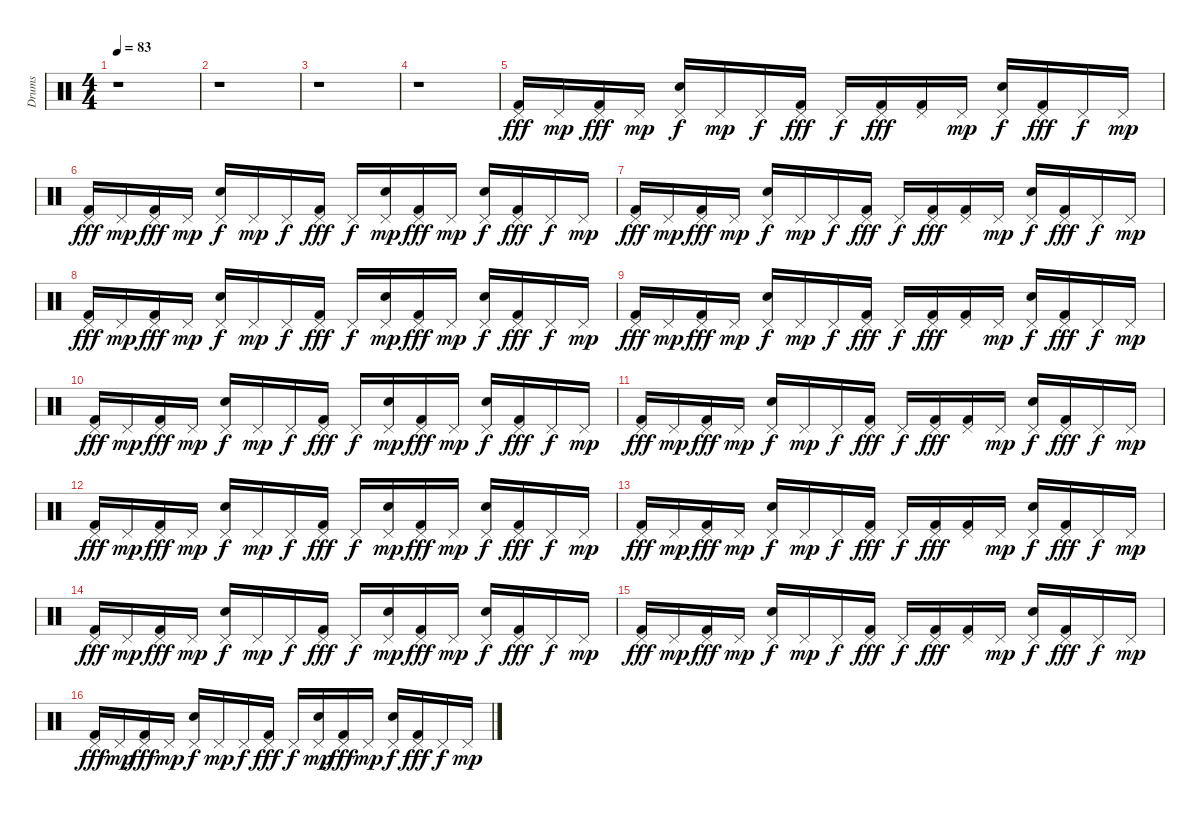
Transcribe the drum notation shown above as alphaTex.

\track ("Drums" "Drums") {instrument percussion}
\staff {score}
\articulation defaults
\ts (4 4)
\tempo 83
\clef neutral
\ks c
r.1{dy fff} |
r.1 |
r.1 |
r.1 |
("Pedal Hi-Hat (hit)" "Kick (hit) 2").16 "Pedal Hi-Hat (hit)".16{dy mp} ("Pedal Hi-Hat (hit)" "Kick (hit) 2").16{dy fff} "Pedal Hi-Hat (hit)".16{dy mp} ("Pedal Hi-Hat (hit)" "Snare (hit) 2").16{dy f} "Pedal Hi-Hat (hit)".16{dy mp} "Pedal Hi-Hat (hit)".16{dy f} ("Pedal Hi-Hat (hit)" "Kick (hit) 2").16{dy fff} "Pedal Hi-Hat (hit)".16{dy f} ("Pedal Hi-Hat (hit)" "Kick (hit) 2").16{dy fff} ("Pedal Hi-Hat (hit)" "Kick (hit) 2").16 "Pedal Hi-Hat (hit)".16{dy mp} ("Pedal Hi-Hat (hit)" "Snare (hit) 2").16{dy f} ("Pedal Hi-Hat (hit)" "Kick (hit) 2").16{dy fff} "Pedal Hi-Hat (hit)".16{dy f} "Pedal Hi-Hat (hit)".16{dy mp} |
("Pedal Hi-Hat (hit)" "Kick (hit) 2").16{dy fff} "Pedal Hi-Hat (hit)".16{dy mp} ("Pedal Hi-Hat (hit)" "Kick (hit) 2").16{dy fff} "Pedal Hi-Hat (hit)".16{dy mp} ("Pedal Hi-Hat (hit)" "Snare (hit) 2").16{dy f} "Pedal Hi-Hat (hit)".16{dy mp} "Pedal Hi-Hat (hit)".16{dy f} ("Pedal Hi-Hat (hit)" "Kick (hit) 2").16{dy fff} "Pedal Hi-Hat (hit)".16{dy f} ("Pedal Hi-Hat (hit)" "Snare (hit) 2").16{dy mp} ("Pedal Hi-Hat (hit)" "Kick (hit) 2").16{dy fff} "Pedal Hi-Hat (hit)".16{dy mp} ("Pedal Hi-Hat (hit)" "Snare (hit) 2").16{dy f} ("Pedal Hi-Hat (hit)" "Kick (hit) 2").16{dy fff} "Pedal Hi-Hat (hit)".16{dy f} "Pedal Hi-Hat (hit)".16{dy mp} |
("Pedal Hi-Hat (hit)" "Kick (hit) 2").16{dy fff} "Pedal Hi-Hat (hit)".16{dy mp} ("Pedal Hi-Hat (hit)" "Kick (hit) 2").16{dy fff} "Pedal Hi-Hat (hit)".16{dy mp} ("Pedal Hi-Hat (hit)" "Snare (hit) 2").16{dy f} "Pedal Hi-Hat (hit)".16{dy mp} "Pedal Hi-Hat (hit)".16{dy f} ("Pedal Hi-Hat (hit)" "Kick (hit) 2").16{dy fff} "Pedal Hi-Hat (hit)".16{dy f} ("Pedal Hi-Hat (hit)" "Kick (hit) 2").16{dy fff} ("Pedal Hi-Hat (hit)" "Kick (hit) 2").16 "Pedal Hi-Hat (hit)".16{dy mp} ("Pedal Hi-Hat (hit)" "Snare (hit) 2").16{dy f} ("Pedal Hi-Hat (hit)" "Kick (hit) 2").16{dy fff} "Pedal Hi-Hat (hit)".16{dy f} "Pedal Hi-Hat (hit)".16{dy mp} |
("Pedal Hi-Hat (hit)" "Kick (hit) 2").16{dy fff} "Pedal Hi-Hat (hit)".16{dy mp} ("Pedal Hi-Hat (hit)" "Kick (hit) 2").16{dy fff} "Pedal Hi-Hat (hit)".16{dy mp} ("Pedal Hi-Hat (hit)" "Snare (hit) 2").16{dy f} "Pedal Hi-Hat (hit)".16{dy mp} "Pedal Hi-Hat (hit)".16{dy f} ("Pedal Hi-Hat (hit)" "Kick (hit) 2").16{dy fff} "Pedal Hi-Hat (hit)".16{dy f} ("Pedal Hi-Hat (hit)" "Snare (hit) 2").16{dy mp} ("Pedal Hi-Hat (hit)" "Kick (hit) 2").16{dy fff} "Pedal Hi-Hat (hit)".16{dy mp} ("Pedal Hi-Hat (hit)" "Snare (hit) 2").16{dy f} ("Pedal Hi-Hat (hit)" "Kick (hit) 2").16{dy fff} "Pedal Hi-Hat (hit)".16{dy f} "Pedal Hi-Hat (hit)".16{dy mp} |
("Pedal Hi-Hat (hit)" "Kick (hit) 2").16{dy fff} "Pedal Hi-Hat (hit)".16{dy mp} ("Pedal Hi-Hat (hit)" "Kick (hit) 2").16{dy fff} "Pedal Hi-Hat (hit)".16{dy mp} ("Pedal Hi-Hat (hit)" "Snare (hit) 2").16{dy f} "Pedal Hi-Hat (hit)".16{dy mp} "Pedal Hi-Hat (hit)".16{dy f} ("Pedal Hi-Hat (hit)" "Kick (hit) 2").16{dy fff} "Pedal Hi-Hat (hit)".16{dy f} ("Pedal Hi-Hat (hit)" "Kick (hit) 2").16{dy fff} ("Pedal Hi-Hat (hit)" "Kick (hit) 2").16 "Pedal Hi-Hat (hit)".16{dy mp} ("Pedal Hi-Hat (hit)" "Snare (hit) 2").16{dy f} ("Pedal Hi-Hat (hit)" "Kick (hit) 2").16{dy fff} "Pedal Hi-Hat (hit)".16{dy f} "Pedal Hi-Hat (hit)".16{dy mp} |
("Pedal Hi-Hat (hit)" "Kick (hit) 2").16{dy fff} "Pedal Hi-Hat (hit)".16{dy mp} ("Pedal Hi-Hat (hit)" "Kick (hit) 2").16{dy fff} "Pedal Hi-Hat (hit)".16{dy mp} ("Pedal Hi-Hat (hit)" "Snare (hit) 2").16{dy f} "Pedal Hi-Hat (hit)".16{dy mp} "Pedal Hi-Hat (hit)".16{dy f} ("Pedal Hi-Hat (hit)" "Kick (hit) 2").16{dy fff} "Pedal Hi-Hat (hit)".16{dy f} ("Pedal Hi-Hat (hit)" "Snare (hit) 2").16{dy mp} ("Pedal Hi-Hat (hit)" "Kick (hit) 2").16{dy fff} "Pedal Hi-Hat (hit)".16{dy mp} ("Pedal Hi-Hat (hit)" "Snare (hit) 2").16{dy f} ("Pedal Hi-Hat (hit)" "Kick (hit) 2").16{dy fff} "Pedal Hi-Hat (hit)".16{dy f} "Pedal Hi-Hat (hit)".16{dy mp} |
("Pedal Hi-Hat (hit)" "Kick (hit) 2").16{dy fff} "Pedal Hi-Hat (hit)".16{dy mp} ("Pedal Hi-Hat (hit)" "Kick (hit) 2").16{dy fff} "Pedal Hi-Hat (hit)".16{dy mp} ("Pedal Hi-Hat (hit)" "Snare (hit) 2").16{dy f} "Pedal Hi-Hat (hit)".16{dy mp} "Pedal Hi-Hat (hit)".16{dy f} ("Pedal Hi-Hat (hit)" "Kick (hit) 2").16{dy fff} "Pedal Hi-Hat (hit)".16{dy f} ("Pedal Hi-Hat (hit)" "Kick (hit) 2").16{dy fff} ("Pedal Hi-Hat (hit)" "Kick (hit) 2").16 "Pedal Hi-Hat (hit)".16{dy mp} ("Pedal Hi-Hat (hit)" "Snare (hit) 2").16{dy f} ("Pedal Hi-Hat (hit)" "Kick (hit) 2").16{dy fff} "Pedal Hi-Hat (hit)".16{dy f} "Pedal Hi-Hat (hit)".16{dy mp} |
("Pedal Hi-Hat (hit)" "Kick (hit) 2").16{dy fff} "Pedal Hi-Hat (hit)".16{dy mp} ("Pedal Hi-Hat (hit)" "Kick (hit) 2").16{dy fff} "Pedal Hi-Hat (hit)".16{dy mp} ("Pedal Hi-Hat (hit)" "Snare (hit) 2").16{dy f} "Pedal Hi-Hat (hit)".16{dy mp} "Pedal Hi-Hat (hit)".16{dy f} ("Pedal Hi-Hat (hit)" "Kick (hit) 2").16{dy fff} "Pedal Hi-Hat (hit)".16{dy f} ("Pedal Hi-Hat (hit)" "Snare (hit) 2").16{dy mp} ("Pedal Hi-Hat (hit)" "Kick (hit) 2").16{dy fff} "Pedal Hi-Hat (hit)".16{dy mp} ("Pedal Hi-Hat (hit)" "Snare (hit) 2").16{dy f} ("Pedal Hi-Hat (hit)" "Kick (hit) 2").16{dy fff} "Pedal Hi-Hat (hit)".16{dy f} "Pedal Hi-Hat (hit)".16{dy mp} |
("Pedal Hi-Hat (hit)" "Kick (hit) 2").16{dy fff} "Pedal Hi-Hat (hit)".16{dy mp} ("Pedal Hi-Hat (hit)" "Kick (hit) 2").16{dy fff} "Pedal Hi-Hat (hit)".16{dy mp} ("Pedal Hi-Hat (hit)" "Snare (hit) 2").16{dy f} "Pedal Hi-Hat (hit)".16{dy mp} "Pedal Hi-Hat (hit)".16{dy f} ("Pedal Hi-Hat (hit)" "Kick (hit) 2").16{dy fff} "Pedal Hi-Hat (hit)".16{dy f} ("Pedal Hi-Hat (hit)" "Kick (hit) 2").16{dy fff} ("Pedal Hi-Hat (hit)" "Kick (hit) 2").16 "Pedal Hi-Hat (hit)".16{dy mp} ("Pedal Hi-Hat (hit)" "Snare (hit) 2").16{dy f} ("Pedal Hi-Hat (hit)" "Kick (hit) 2").16{dy fff} "Pedal Hi-Hat (hit)".16{dy f} "Pedal Hi-Hat (hit)".16{dy mp} |
("Pedal Hi-Hat (hit)" "Kick (hit) 2").16{dy fff} "Pedal Hi-Hat (hit)".16{dy mp} ("Pedal Hi-Hat (hit)" "Kick (hit) 2").16{dy fff} "Pedal Hi-Hat (hit)".16{dy mp} ("Pedal Hi-Hat (hit)" "Snare (hit) 2").16{dy f} "Pedal Hi-Hat (hit)".16{dy mp} "Pedal Hi-Hat (hit)".16{dy f} ("Pedal Hi-Hat (hit)" "Kick (hit) 2").16{dy fff} "Pedal Hi-Hat (hit)".16{dy f} ("Pedal Hi-Hat (hit)" "Snare (hit) 2").16{dy mp} ("Pedal Hi-Hat (hit)" "Kick (hit) 2").16{dy fff} "Pedal Hi-Hat (hit)".16{dy mp} ("Pedal Hi-Hat (hit)" "Snare (hit) 2").16{dy f} ("Pedal Hi-Hat (hit)" "Kick (hit) 2").16{dy fff} "Pedal Hi-Hat (hit)".16{dy f} "Pedal Hi-Hat (hit)".16{dy mp} |
("Pedal Hi-Hat (hit)" "Kick (hit) 2").16{dy fff} "Pedal Hi-Hat (hit)".16{dy mp} ("Pedal Hi-Hat (hit)" "Kick (hit) 2").16{dy fff} "Pedal Hi-Hat (hit)".16{dy mp} ("Pedal Hi-Hat (hit)" "Snare (hit) 2").16{dy f} "Pedal Hi-Hat (hit)".16{dy mp} "Pedal Hi-Hat (hit)".16{dy f} ("Pedal Hi-Hat (hit)" "Kick (hit) 2").16{dy fff} "Pedal Hi-Hat (hit)".16{dy f} ("Pedal Hi-Hat (hit)" "Kick (hit) 2").16{dy fff} ("Pedal Hi-Hat (hit)" "Kick (hit) 2").16 "Pedal Hi-Hat (hit)".16{dy mp} ("Pedal Hi-Hat (hit)" "Snare (hit) 2").16{dy f} ("Pedal Hi-Hat (hit)" "Kick (hit) 2").16{dy fff} "Pedal Hi-Hat (hit)".16{dy f} "Pedal Hi-Hat (hit)".16{dy mp} |
("Pedal Hi-Hat (hit)" "Kick (hit) 2").16{dy fff} "Pedal Hi-Hat (hit)".16{dy mp} ("Pedal Hi-Hat (hit)" "Kick (hit) 2").16{dy fff} "Pedal Hi-Hat (hit)".16{dy mp} ("Pedal Hi-Hat (hit)" "Snare (hit) 2").16{dy f} "Pedal Hi-Hat (hit)".16{dy mp} "Pedal Hi-Hat (hit)".16{dy f} ("Pedal Hi-Hat (hit)" "Kick (hit) 2").16{dy fff} "Pedal Hi-Hat (hit)".16{dy f} ("Pedal Hi-Hat (hit)" "Snare (hit) 2").16{dy mp} ("Pedal Hi-Hat (hit)" "Kick (hit) 2").16{dy fff} "Pedal Hi-Hat (hit)".16{dy mp} ("Pedal Hi-Hat (hit)" "Snare (hit) 2").16{dy f} ("Pedal Hi-Hat (hit)" "Kick (hit) 2").16{dy fff} "Pedal Hi-Hat (hit)".16{dy f} "Pedal Hi-Hat (hit)".16{dy mp}
